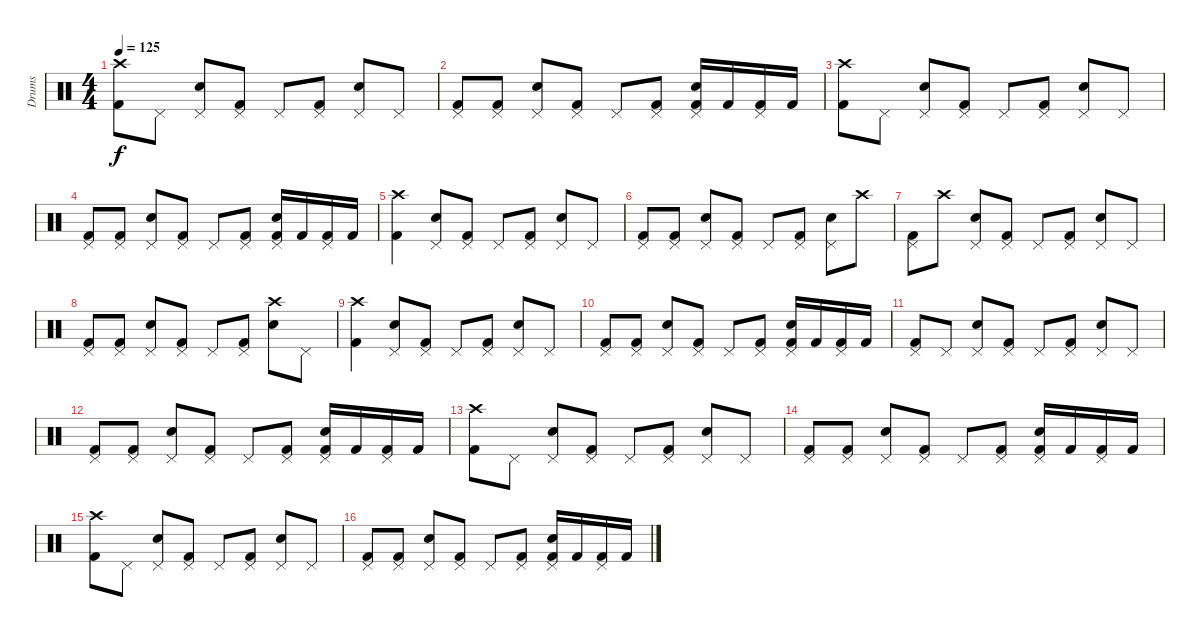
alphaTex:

\track ("Drums" "Drums") {instrument percussion}
\staff {score}
\articulation defaults
\ts (4 4)
\tempo 125
\clef neutral
\ks c
("Crash high (hit)" "Kick (hit) 2").8{dy f} "Pedal Hi-Hat (hit)".8 ("Pedal Hi-Hat (hit)" "Snare (hit) 2").8 ("Pedal Hi-Hat (hit)" "Kick (hit) 2").8 "Pedal Hi-Hat (hit)".8 ("Pedal Hi-Hat (hit)" "Kick (hit) 2").8 ("Pedal Hi-Hat (hit)" "Snare (hit) 2").8 "Pedal Hi-Hat (hit)".8 |
("Pedal Hi-Hat (hit)" "Kick (hit) 2").8 ("Pedal Hi-Hat (hit)" "Kick (hit) 2").8 ("Pedal Hi-Hat (hit)" "Snare (hit) 2").8 ("Pedal Hi-Hat (hit)" "Kick (hit) 2").8 "Pedal Hi-Hat (hit)".8 ("Pedal Hi-Hat (hit)" "Kick (hit) 2").8 ("Pedal Hi-Hat (hit)" "Kick (hit) 2" "Snare (hit) 2").16 "Kick (hit) 2".16 ("Pedal Hi-Hat (hit)" "Kick (hit) 2").16 "Kick (hit) 2".16 |
("Crash high (hit)" "Kick (hit) 2").8 "Pedal Hi-Hat (hit)".8 ("Pedal Hi-Hat (hit)" "Snare (hit) 2").8 ("Pedal Hi-Hat (hit)" "Kick (hit) 2").8 "Pedal Hi-Hat (hit)".8 ("Pedal Hi-Hat (hit)" "Kick (hit) 2").8 ("Pedal Hi-Hat (hit)" "Snare (hit) 2").8 "Pedal Hi-Hat (hit)".8 |
("Pedal Hi-Hat (hit)" "Kick (hit) 2").8 ("Pedal Hi-Hat (hit)" "Kick (hit) 2").8 ("Pedal Hi-Hat (hit)" "Snare (hit) 2").8 ("Pedal Hi-Hat (hit)" "Kick (hit) 2").8 "Pedal Hi-Hat (hit)".8 ("Pedal Hi-Hat (hit)" "Kick (hit) 2").8 ("Pedal Hi-Hat (hit)" "Kick (hit) 2" "Snare (hit) 2").16 "Kick (hit) 2".16 ("Pedal Hi-Hat (hit)" "Kick (hit) 2").16 "Kick (hit) 2".16 |
("Crash high (hit)" "Kick (hit) 2").4 ("Pedal Hi-Hat (hit)" "Snare (hit) 2").8 ("Pedal Hi-Hat (hit)" "Kick (hit) 2").8 "Pedal Hi-Hat (hit)".8 ("Pedal Hi-Hat (hit)" "Kick (hit) 2").8 ("Pedal Hi-Hat (hit)" "Snare (hit) 2").8 "Pedal Hi-Hat (hit)".8 |
("Pedal Hi-Hat (hit)" "Kick (hit) 2").8 ("Pedal Hi-Hat (hit)" "Kick (hit) 2").8 ("Pedal Hi-Hat (hit)" "Snare (hit) 2").8 ("Pedal Hi-Hat (hit)" "Kick (hit) 2").8 "Pedal Hi-Hat (hit)".8 ("Pedal Hi-Hat (hit)" "Kick (hit) 2").8 ("Pedal Hi-Hat (hit)" "Snare (hit) 2").8 "Crash high (hit)".8 |
("Pedal Hi-Hat (hit)" "Kick (hit) 2").8 "Crash high (hit)".8 ("Pedal Hi-Hat (hit)" "Snare (hit) 2").8 ("Pedal Hi-Hat (hit)" "Kick (hit) 2").8 "Pedal Hi-Hat (hit)".8 ("Pedal Hi-Hat (hit)" "Kick (hit) 2").8 ("Pedal Hi-Hat (hit)" "Snare (hit) 2").8 "Pedal Hi-Hat (hit)".8 |
("Pedal Hi-Hat (hit)" "Kick (hit) 2").8 ("Pedal Hi-Hat (hit)" "Kick (hit) 2").8 ("Pedal Hi-Hat (hit)" "Snare (hit) 2").8 ("Pedal Hi-Hat (hit)" "Kick (hit) 2").8 "Pedal Hi-Hat (hit)".8 ("Pedal Hi-Hat (hit)" "Kick (hit) 2").8 ("Crash high (hit)" "Snare (hit) 2").8 "Pedal Hi-Hat (hit)".8 |
("Crash high (hit)" "Kick (hit) 2").4 ("Pedal Hi-Hat (hit)" "Snare (hit) 2").8 ("Pedal Hi-Hat (hit)" "Kick (hit) 2").8 "Pedal Hi-Hat (hit)".8 ("Pedal Hi-Hat (hit)" "Kick (hit) 2").8 ("Pedal Hi-Hat (hit)" "Snare (hit) 2").8 "Pedal Hi-Hat (hit)".8 |
("Pedal Hi-Hat (hit)" "Kick (hit) 2").8 ("Pedal Hi-Hat (hit)" "Kick (hit) 2").8 ("Pedal Hi-Hat (hit)" "Snare (hit) 2").8 ("Pedal Hi-Hat (hit)" "Kick (hit) 2").8 "Pedal Hi-Hat (hit)".8 ("Pedal Hi-Hat (hit)" "Kick (hit) 2").8 ("Pedal Hi-Hat (hit)" "Kick (hit) 2" "Snare (hit) 2").16 "Kick (hit) 2".16 ("Pedal Hi-Hat (hit)" "Kick (hit) 2").16 "Kick (hit) 2".16 |
("Pedal Hi-Hat (hit)" "Kick (hit) 2").8 "Pedal Hi-Hat (hit)".8 ("Pedal Hi-Hat (hit)" "Snare (hit) 2").8 ("Pedal Hi-Hat (hit)" "Kick (hit) 2").8 "Pedal Hi-Hat (hit)".8 ("Pedal Hi-Hat (hit)" "Kick (hit) 2").8 ("Pedal Hi-Hat (hit)" "Snare (hit) 2").8 "Pedal Hi-Hat (hit)".8 |
("Pedal Hi-Hat (hit)" "Kick (hit) 2").8 ("Pedal Hi-Hat (hit)" "Kick (hit) 2").8 ("Pedal Hi-Hat (hit)" "Snare (hit) 2").8 ("Pedal Hi-Hat (hit)" "Kick (hit) 2").8 "Pedal Hi-Hat (hit)".8 ("Pedal Hi-Hat (hit)" "Kick (hit) 2").8 ("Pedal Hi-Hat (hit)" "Kick (hit) 2" "Snare (hit) 2").16 "Kick (hit) 2".16 ("Pedal Hi-Hat (hit)" "Kick (hit) 2").16 "Kick (hit) 2".16 |
("Crash high (hit)" "Kick (hit) 2").8 "Pedal Hi-Hat (hit)".8 ("Pedal Hi-Hat (hit)" "Snare (hit) 2").8 ("Pedal Hi-Hat (hit)" "Kick (hit) 2").8 "Pedal Hi-Hat (hit)".8 ("Pedal Hi-Hat (hit)" "Kick (hit) 2").8 ("Pedal Hi-Hat (hit)" "Snare (hit) 2").8 "Pedal Hi-Hat (hit)".8 |
("Pedal Hi-Hat (hit)" "Kick (hit) 2").8 ("Pedal Hi-Hat (hit)" "Kick (hit) 2").8 ("Pedal Hi-Hat (hit)" "Snare (hit) 2").8 ("Pedal Hi-Hat (hit)" "Kick (hit) 2").8 "Pedal Hi-Hat (hit)".8 ("Pedal Hi-Hat (hit)" "Kick (hit) 2").8 ("Pedal Hi-Hat (hit)" "Kick (hit) 2" "Snare (hit) 2").16 "Kick (hit) 2".16 ("Pedal Hi-Hat (hit)" "Kick (hit) 2").16 "Kick (hit) 2".16 |
("Crash high (hit)" "Kick (hit) 2").8 "Pedal Hi-Hat (hit)".8 ("Pedal Hi-Hat (hit)" "Snare (hit) 2").8 ("Pedal Hi-Hat (hit)" "Kick (hit) 2").8 "Pedal Hi-Hat (hit)".8 ("Pedal Hi-Hat (hit)" "Kick (hit) 2").8 ("Pedal Hi-Hat (hit)" "Snare (hit) 2").8 "Pedal Hi-Hat (hit)".8 |
("Pedal Hi-Hat (hit)" "Kick (hit) 2").8 ("Pedal Hi-Hat (hit)" "Kick (hit) 2").8 ("Pedal Hi-Hat (hit)" "Snare (hit) 2").8 ("Pedal Hi-Hat (hit)" "Kick (hit) 2").8 "Pedal Hi-Hat (hit)".8 ("Pedal Hi-Hat (hit)" "Kick (hit) 2").8 ("Pedal Hi-Hat (hit)" "Kick (hit) 2" "Snare (hit) 2").16 "Kick (hit) 2".16 ("Pedal Hi-Hat (hit)" "Kick (hit) 2").16 "Kick (hit) 2".16
